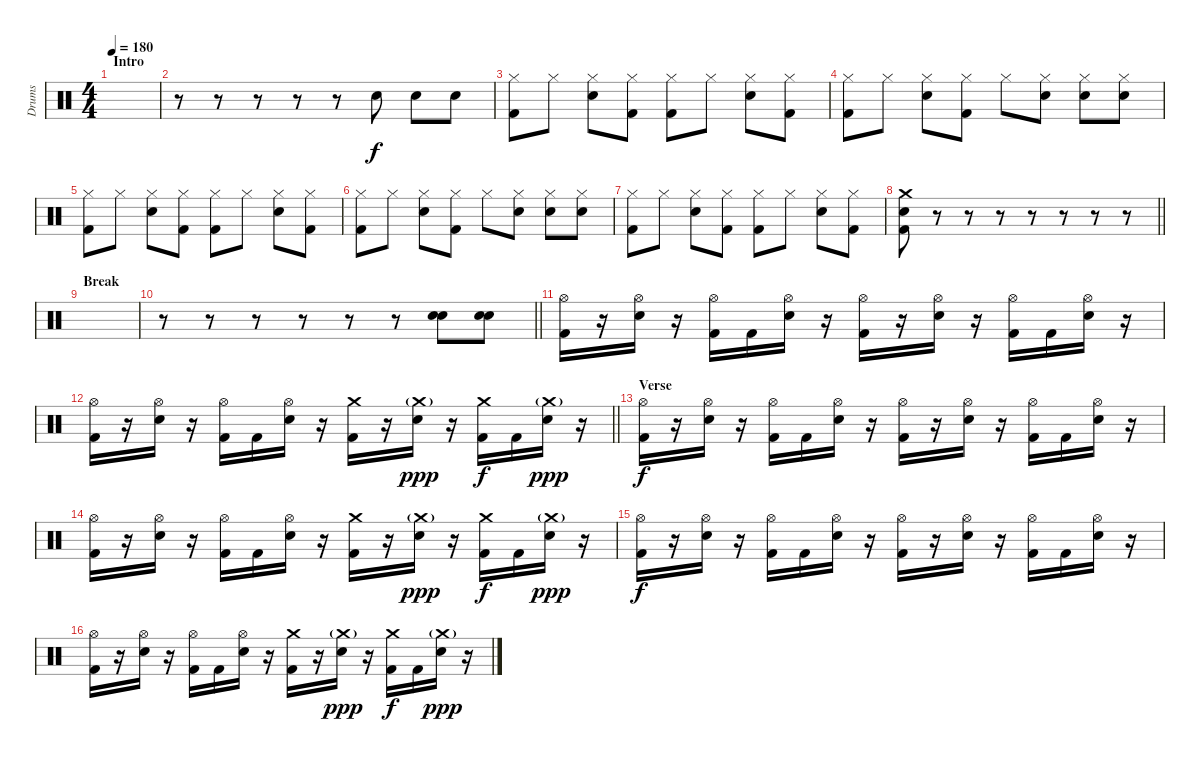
\track ("Drums" "Drums") {instrument percussion}
\staff {score}
\articulation defaults
\ts (4 4)
\section ("" "Intro")
\tempo 180
\clef neutral
\ks c
|
r.8 r.8 r.8 r.8 r.8 "Snare (hit) 2".8 "Snare (hit) 2".8 "Snare (hit) 2".8 |
("Hi-Hat (closed)" "Kick (hit) 2").8 "Hi-Hat (closed)".8 ("Hi-Hat (closed)" "Snare (hit) 2").8 ("Hi-Hat (closed)" "Kick (hit) 2").8 ("Hi-Hat (closed)" "Kick (hit) 2").8 "Hi-Hat (closed)".8 ("Hi-Hat (closed)" "Snare (hit) 2").8 ("Hi-Hat (closed)" "Kick (hit) 2").8 |
("Hi-Hat (closed)" "Kick (hit) 2").8 "Hi-Hat (closed)".8 ("Hi-Hat (closed)" "Snare (hit) 2").8 ("Hi-Hat (closed)" "Kick (hit) 2").8 "Hi-Hat (closed)".8 ("Hi-Hat (closed)" "Snare (hit) 2").8 ("Hi-Hat (closed)" "Snare (hit) 2").8 ("Hi-Hat (closed)" "Snare (hit) 2").8 |
("Hi-Hat (closed)" "Kick (hit) 2").8 "Hi-Hat (closed)".8 ("Hi-Hat (closed)" "Snare (hit) 2").8 ("Hi-Hat (closed)" "Kick (hit) 2").8 ("Hi-Hat (closed)" "Kick (hit) 2").8 "Hi-Hat (closed)".8 ("Hi-Hat (closed)" "Snare (hit) 2").8 ("Hi-Hat (closed)" "Kick (hit) 2").8 |
("Hi-Hat (closed)" "Kick (hit) 2").8 "Hi-Hat (closed)".8 ("Hi-Hat (closed)" "Snare (hit) 2").8 ("Hi-Hat (closed)" "Kick (hit) 2").8 "Hi-Hat (closed)".8 ("Hi-Hat (closed)" "Snare (hit) 2").8 ("Hi-Hat (closed)" "Snare (hit) 2").8 ("Hi-Hat (closed)" "Snare (hit) 2").8 |
("Hi-Hat (closed)" "Kick (hit) 2").8 "Hi-Hat (closed)".8 ("Hi-Hat (closed)" "Snare (hit) 2").8 ("Hi-Hat (closed)" "Kick (hit) 2").8 ("Hi-Hat (closed)" "Kick (hit) 2").8 "Hi-Hat (closed)".8 ("Hi-Hat (closed)" "Snare (hit) 2").8 ("Hi-Hat (closed)" "Kick (hit) 2").8 |
\barLineRight lightlight
("Crash medium (hit)" "Snare (hit) 2" "Kick (hit) 2").8 r.8 r.8 r.8 r.8 r.8 r.8 r.8 |
\section ("" "Break")
|
\barLineRight lightlight
r.8 r.8 r.8 r.8 r.8 r.8 ("Snare (hit) 2" "Snare (hit) 2").8 ("Snare (hit) 2" "Snare (hit) 2").8 |
\section ("" "")
("Hi-Hat (open)" "Kick (hit) 2").16 r.16 ("Hi-Hat (open)" "Snare (hit) 2").16 r.16 ("Hi-Hat (open)" "Kick (hit) 2").16 "Kick (hit) 2".16 ("Hi-Hat (open)" "Snare (hit) 2").16 r.16 ("Hi-Hat (open)" "Kick (hit) 2").16 r.16 ("Hi-Hat (open)" "Snare (hit) 2").16 r.16 ("Hi-Hat (open)" "Kick (hit) 2").16 "Kick (hit) 2".16 ("Hi-Hat (open)" "Snare (hit) 2").16 r.16 |
\barLineRight lightlight
("Hi-Hat (open)" "Kick (hit) 2").16 r.16 ("Hi-Hat (open)" "Snare (hit) 2").16 r.16 ("Hi-Hat (open)" "Kick (hit) 2").16 "Kick (hit) 2".16 ("Hi-Hat (open)" "Snare (hit) 2").16 r.16 ("Crash medium (hit)" "Kick (hit) 2").16 r.16 ("Crash medium (hit)"{g} "Snare (hit) 2").16{dy ppp} r.16 ("Crash medium (hit)" "Kick (hit) 2").16{dy f} "Kick (hit) 2".16 ("Crash medium (hit)"{g} "Snare (hit) 2").16{dy ppp} r.16 |
\section ("" "Verse")
("Hi-Hat (open)" "Kick (hit) 2").16{dy f} r.16 ("Hi-Hat (open)" "Snare (hit) 2").16 r.16 ("Hi-Hat (open)" "Kick (hit) 2").16 "Kick (hit) 2".16 ("Hi-Hat (open)" "Snare (hit) 2").16 r.16 ("Hi-Hat (open)" "Kick (hit) 2").16 r.16 ("Hi-Hat (open)" "Snare (hit) 2").16 r.16 ("Hi-Hat (open)" "Kick (hit) 2").16 "Kick (hit) 2".16 ("Hi-Hat (open)" "Snare (hit) 2").16 r.16 |
("Hi-Hat (open)" "Kick (hit) 2").16 r.16 ("Hi-Hat (open)" "Snare (hit) 2").16 r.16 ("Hi-Hat (open)" "Kick (hit) 2").16 "Kick (hit) 2".16 ("Hi-Hat (open)" "Snare (hit) 2").16 r.16 ("Crash medium (hit)" "Kick (hit) 2").16 r.16 ("Crash medium (hit)"{g} "Snare (hit) 2").16{dy ppp} r.16 ("Crash medium (hit)" "Kick (hit) 2").16{dy f} "Kick (hit) 2".16 ("Crash medium (hit)"{g} "Snare (hit) 2").16{dy ppp} r.16 |
("Hi-Hat (open)" "Kick (hit) 2").16{dy f} r.16 ("Hi-Hat (open)" "Snare (hit) 2").16 r.16 ("Hi-Hat (open)" "Kick (hit) 2").16 "Kick (hit) 2".16 ("Hi-Hat (open)" "Snare (hit) 2").16 r.16 ("Hi-Hat (open)" "Kick (hit) 2").16 r.16 ("Hi-Hat (open)" "Snare (hit) 2").16 r.16 ("Hi-Hat (open)" "Kick (hit) 2").16 "Kick (hit) 2".16 ("Hi-Hat (open)" "Snare (hit) 2").16 r.16 |
("Hi-Hat (open)" "Kick (hit) 2").16 r.16 ("Hi-Hat (open)" "Snare (hit) 2").16 r.16 ("Hi-Hat (open)" "Kick (hit) 2").16 "Kick (hit) 2".16 ("Hi-Hat (open)" "Snare (hit) 2").16 r.16 ("Crash medium (hit)" "Kick (hit) 2").16 r.16 ("Crash medium (hit)"{g} "Snare (hit) 2").16{dy ppp} r.16 ("Crash medium (hit)" "Kick (hit) 2").16{dy f} "Kick (hit) 2".16 ("Crash medium (hit)"{g} "Snare (hit) 2").16{dy ppp} r.16
